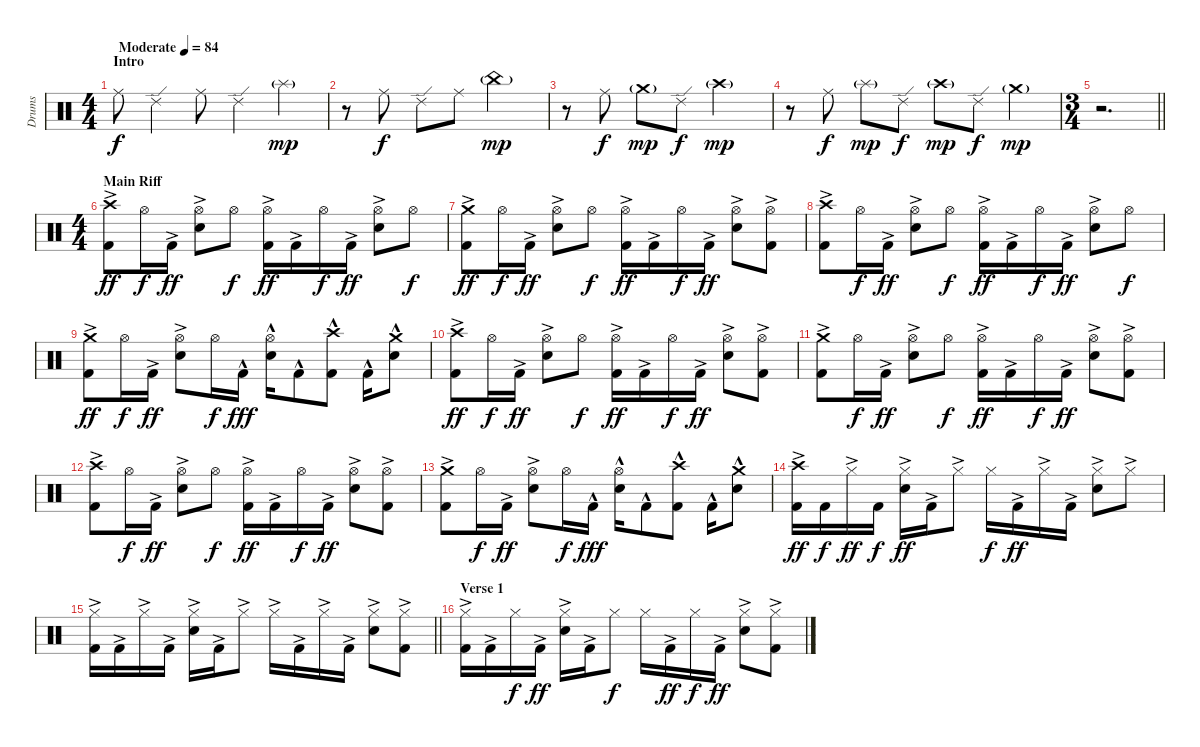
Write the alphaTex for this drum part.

\track ("Drums" "Drums") {instrument percussion}
\staff {score}
\articulation defaults
\ts (4 4)
\section ("" "Intro")
\tempo (84 "Moderate")
\clef neutral
\ks c "Ride (middle)".8{dy f} "Ride (edge) 2".4 "Ride (middle)".8 "Ride (edge) 2".4 "Splash (hit)"{g}.4{dy mp}
|
r.8 "Ride (middle)".8{dy f} "Ride (edge) 2".8 "Ride (middle)".8 "China (hit)"{g}.2{dy mp} |
r.8 "Ride (middle)".8{dy f} "Crash medium (hit)"{g}.8{dy mp} "Ride (edge) 2".8{dy f} "Crash high (hit)"{g}.2{dy mp} |
r.8 "Ride (middle)".8{dy f} "Splash (hit)"{g}.8{dy mp} "Ride (edge) 2".8{dy f} "Crash high (hit)"{g}.8{dy mp} "Ride (edge) 2".8{dy f} "Crash medium (hit)"{g}.4{dy mp} |
\ts (3 4)
\barLineRight lightlight
r.2{d} |
\ts (4 4)
\section ("" "Main Riff")
("Crash high (hit)" "Kick (hit) 2"{ac}).8{dy ff} "Hi-Hat (open)".16{dy f} "Kick (hit) 2"{ac}.16{dy ff} ("Hi-Hat (open)" "Electric Snare (hit)"{ac}).8 "Hi-Hat (open)".8{dy f} ("Hi-Hat (open)" "Kick (hit) 2"{ac}).16{dy ff} "Kick (hit) 2"{ac}.16 "Hi-Hat (open)".16{dy f} "Kick (hit) 2"{ac}.16{dy ff} ("Hi-Hat (open)" "Electric Snare (hit)"{ac}).8 "Hi-Hat (open)".8{dy f} |
("Crash medium (hit)" "Kick (hit) 2"{ac}).8{dy ff} "Hi-Hat (open)".16{dy f} "Kick (hit) 2"{ac}.16{dy ff} ("Hi-Hat (open)" "Electric Snare (hit)"{ac}).8 "Hi-Hat (open)".8{dy f} ("Hi-Hat (open)" "Kick (hit) 2"{ac}).16{dy ff} "Kick (hit) 2"{ac}.16 "Hi-Hat (open)".16{dy f} "Kick (hit) 2"{ac}.16{dy ff} ("Hi-Hat (open)" "Electric Snare (hit)"{ac}).8 ("Hi-Hat (open)" "Kick (hit) 2"{ac}).8 |
("Crash high (hit)" "Kick (hit) 2"{ac}).8 "Hi-Hat (open)".16{dy f} "Kick (hit) 2"{ac}.16{dy ff} ("Hi-Hat (open)" "Electric Snare (hit)"{ac}).8 "Hi-Hat (open)".8{dy f} ("Hi-Hat (open)" "Kick (hit) 2"{ac}).16{dy ff} "Kick (hit) 2"{ac}.16 "Hi-Hat (open)".16{dy f} "Kick (hit) 2"{ac}.16{dy ff} ("Hi-Hat (open)" "Electric Snare (hit)"{ac}).8 "Hi-Hat (open)".8{dy f} |
("Crash medium (hit)" "Kick (hit) 2"{ac}).8{dy ff} "Hi-Hat (open)".16{dy f} "Kick (hit) 2"{ac}.16{dy ff} ("Hi-Hat (open)" "Electric Snare (hit)"{ac}).8 "Hi-Hat (open)".16{dy f} "Kick (hit) 2"{hac}.16{dy fff} ("Hi-Hat (open)" "Electric Snare (hit)"{hac}).16 "Kick (hit) 2"{hac}.8 ("Crash high (hit)" "Kick (hit) 2"{hac}).8 "Kick (hit) 2"{hac}.16 ("Crash medium (hit)" "Electric Snare (hit)"{hac}).8 |
("Crash high (hit)" "Kick (hit) 2"{ac}).8{dy ff} "Hi-Hat (open)".16{dy f} "Kick (hit) 2"{ac}.16{dy ff} ("Hi-Hat (open)" "Electric Snare (hit)"{ac}).8 "Hi-Hat (open)".8{dy f} ("Hi-Hat (open)" "Kick (hit) 2"{ac}).16{dy ff} "Kick (hit) 2"{ac}.16 "Hi-Hat (open)".16{dy f} "Kick (hit) 2"{ac}.16{dy ff} ("Hi-Hat (open)" "Electric Snare (hit)"{ac}).8 ("Hi-Hat (open)" "Kick (hit) 2"{ac}).8 |
("Crash medium (hit)" "Kick (hit) 2"{ac}).8 "Hi-Hat (open)".16{dy f} "Kick (hit) 2"{ac}.16{dy ff} ("Hi-Hat (open)" "Electric Snare (hit)"{ac}).8 "Hi-Hat (open)".8{dy f} ("Hi-Hat (open)" "Kick (hit) 2"{ac}).16{dy ff} "Kick (hit) 2"{ac}.16 "Hi-Hat (open)".16{dy f} "Kick (hit) 2"{ac}.16{dy ff} ("Hi-Hat (open)" "Electric Snare (hit)"{ac}).8 ("Hi-Hat (open)" "Kick (hit) 2"{ac}).8 |
("Crash high (hit)" "Kick (hit) 2"{ac}).8 "Hi-Hat (open)".16{dy f} "Kick (hit) 2"{ac}.16{dy ff} ("Hi-Hat (open)" "Electric Snare (hit)"{ac}).8 "Hi-Hat (open)".8{dy f} ("Hi-Hat (open)" "Kick (hit) 2"{ac}).16{dy ff} "Kick (hit) 2"{ac}.16 "Hi-Hat (open)".16{dy f} "Kick (hit) 2"{ac}.16{dy ff} ("Hi-Hat (open)" "Electric Snare (hit)"{ac}).8 ("Hi-Hat (open)" "Kick (hit) 2"{ac}).8 |
("Crash medium (hit)" "Kick (hit) 2"{ac}).8 "Hi-Hat (open)".16{dy f} "Kick (hit) 2"{ac}.16{dy ff} ("Hi-Hat (open)" "Electric Snare (hit)"{ac}).8 "Hi-Hat (open)".16{dy f} "Kick (hit) 2"{hac}.16{dy fff} ("Hi-Hat (open)" "Electric Snare (hit)"{hac}).16 "Kick (hit) 2"{hac}.8 ("Crash high (hit)" "Kick (hit) 2"{hac}).8 "Kick (hit) 2"{hac}.16 ("Crash medium (hit)" "Electric Snare (hit)"{hac}).8 |
("Crash high (hit)" "Kick (hit) 2"{ac}).16{dy ff} "Kick (hit) 2".16{dy f} "Hi-Hat (closed)"{ac}.16{dy ff} "Kick (hit) 2".16{dy f} ("Hi-Hat (closed)" "Electric Snare (hit)"{ac}).16{dy ff} "Kick (hit) 2"{ac}.16 "Hi-Hat (closed)"{ac}.8 "Hi-Hat (closed)".16{dy f} "Kick (hit) 2"{ac}.16{dy ff} "Hi-Hat (closed)"{ac}.16 "Kick (hit) 2"{ac}.16 ("Hi-Hat (closed)"{ac} "Electric Snare (hit)"{ac}).8 "Hi-Hat (closed)"{ac}.8 |
\barLineRight lightlight
("Hi-Hat (closed)"{ac} "Kick (hit) 2"{ac}).16 "Kick (hit) 2"{ac}.16 "Hi-Hat (closed)"{ac}.16 "Kick (hit) 2"{ac}.16 ("Hi-Hat (closed)"{ac} "Electric Snare (hit)"{ac}).16 "Kick (hit) 2"{ac}.16 "Hi-Hat (closed)"{ac}.8 "Hi-Hat (closed)"{ac}.16 "Kick (hit) 2"{ac}.16 "Hi-Hat (closed)"{ac}.16 "Kick (hit) 2"{ac}.16 ("Hi-Hat (closed)"{ac} "Electric Snare (hit)"{ac}).8 ("Hi-Hat (closed)"{ac} "Kick (hit) 2"{ac}).8 |
\section ("" "Verse 1")
("Hi-Hat (closed)" "Kick (hit) 2"{ac}).16 "Kick (hit) 2"{ac}.16 "Hi-Hat (closed)".16{dy f} "Kick (hit) 2"{ac}.16{dy ff} ("Hi-Hat (closed)" "Electric Snare (hit)"{ac}).16 "Kick (hit) 2"{ac}.16 "Hi-Hat (closed)".8{dy f} "Hi-Hat (closed)".16 "Kick (hit) 2"{ac}.16{dy ff} "Hi-Hat (closed)".16{dy f} "Kick (hit) 2"{ac}.16{dy ff} ("Hi-Hat (closed)" "Electric Snare (hit)"{ac}).8 ("Hi-Hat (closed)" "Kick (hit) 2"{ac}).8
